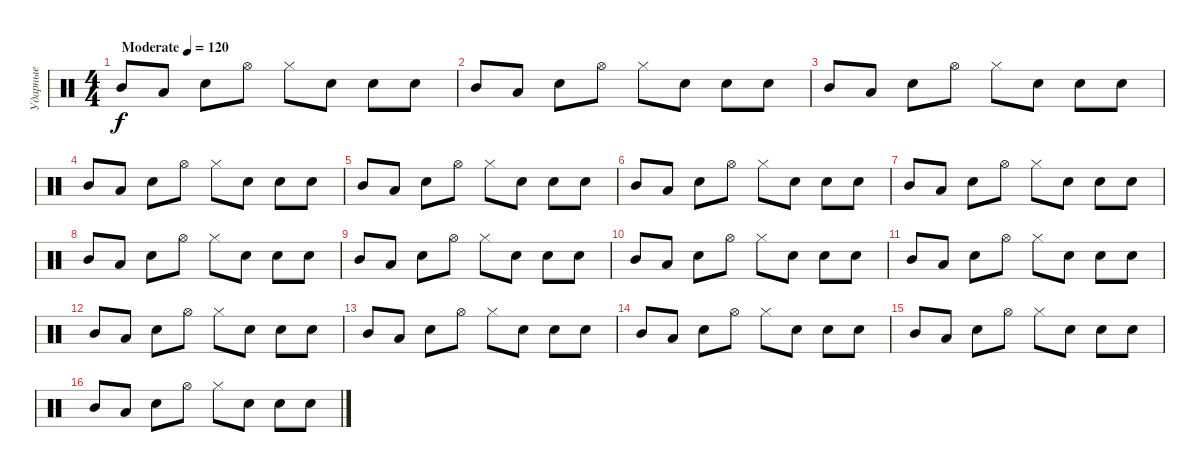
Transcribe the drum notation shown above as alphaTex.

\track ("Ударные" "Ударные") {instrument percussion}
\staff {score}
\articulation defaults
\ts (4 4)
\tempo (120 "Moderate")
\clef neutral
\ks c "Mid Tom (hit)".8{dy f} "Low Tom (hit)".8 "Electric Snare (hit)".8 "Hi-Hat (open)".8 "Hi-Hat (closed)".8 "Snare (hit)".8 "Electric Snare (hit)".8 "Snare (hit)".8
|
"Mid Tom (hit)".8 "Low Tom (hit)".8 "Electric Snare (hit)".8 "Hi-Hat (open)".8 "Hi-Hat (closed)".8 "Snare (hit)".8 "Electric Snare (hit)".8 "Snare (hit)".8 |
"Mid Tom (hit)".8 "Low Tom (hit)".8 "Electric Snare (hit)".8 "Hi-Hat (open)".8 "Hi-Hat (closed)".8 "Snare (hit)".8 "Electric Snare (hit)".8 "Snare (hit)".8 |
"Mid Tom (hit)".8 "Low Tom (hit)".8 "Electric Snare (hit)".8 "Hi-Hat (open)".8 "Hi-Hat (closed)".8 "Snare (hit)".8 "Electric Snare (hit)".8 "Snare (hit)".8 |
"Mid Tom (hit)".8 "Low Tom (hit)".8 "Electric Snare (hit)".8 "Hi-Hat (open)".8 "Hi-Hat (closed)".8 "Snare (hit)".8 "Electric Snare (hit)".8 "Snare (hit)".8 |
"Mid Tom (hit)".8 "Low Tom (hit)".8 "Electric Snare (hit)".8 "Hi-Hat (open)".8 "Hi-Hat (closed)".8 "Snare (hit)".8 "Electric Snare (hit)".8 "Snare (hit)".8 |
"Mid Tom (hit)".8 "Low Tom (hit)".8 "Electric Snare (hit)".8 "Hi-Hat (open)".8 "Hi-Hat (closed)".8 "Snare (hit)".8 "Electric Snare (hit)".8 "Snare (hit)".8 |
"Mid Tom (hit)".8 "Low Tom (hit)".8 "Electric Snare (hit)".8 "Hi-Hat (open)".8 "Hi-Hat (closed)".8 "Snare (hit)".8 "Electric Snare (hit)".8 "Snare (hit)".8 |
"Mid Tom (hit)".8 "Low Tom (hit)".8 "Electric Snare (hit)".8 "Hi-Hat (open)".8 "Hi-Hat (closed)".8 "Snare (hit)".8 "Electric Snare (hit)".8 "Snare (hit)".8 |
"Mid Tom (hit)".8 "Low Tom (hit)".8 "Electric Snare (hit)".8 "Hi-Hat (open)".8 "Hi-Hat (closed)".8 "Snare (hit)".8 "Electric Snare (hit)".8 "Snare (hit)".8 |
"Mid Tom (hit)".8 "Low Tom (hit)".8 "Electric Snare (hit)".8 "Hi-Hat (open)".8 "Hi-Hat (closed)".8 "Snare (hit)".8 "Electric Snare (hit)".8 "Snare (hit)".8 |
"Mid Tom (hit)".8 "Low Tom (hit)".8 "Electric Snare (hit)".8 "Hi-Hat (open)".8 "Hi-Hat (closed)".8 "Snare (hit)".8 "Electric Snare (hit)".8 "Snare (hit)".8 |
"Mid Tom (hit)".8 "Low Tom (hit)".8 "Electric Snare (hit)".8 "Hi-Hat (open)".8 "Hi-Hat (closed)".8 "Snare (hit)".8 "Electric Snare (hit)".8 "Snare (hit)".8 |
"Mid Tom (hit)".8 "Low Tom (hit)".8 "Electric Snare (hit)".8 "Hi-Hat (open)".8 "Hi-Hat (closed)".8 "Snare (hit)".8 "Electric Snare (hit)".8 "Snare (hit)".8 |
"Mid Tom (hit)".8 "Low Tom (hit)".8 "Electric Snare (hit)".8 "Hi-Hat (open)".8 "Hi-Hat (closed)".8 "Snare (hit)".8 "Electric Snare (hit)".8 "Snare (hit)".8 |
"Mid Tom (hit)".8 "Low Tom (hit)".8 "Electric Snare (hit)".8 "Hi-Hat (open)".8 "Hi-Hat (closed)".8 "Snare (hit)".8 "Electric Snare (hit)".8 "Snare (hit)".8
